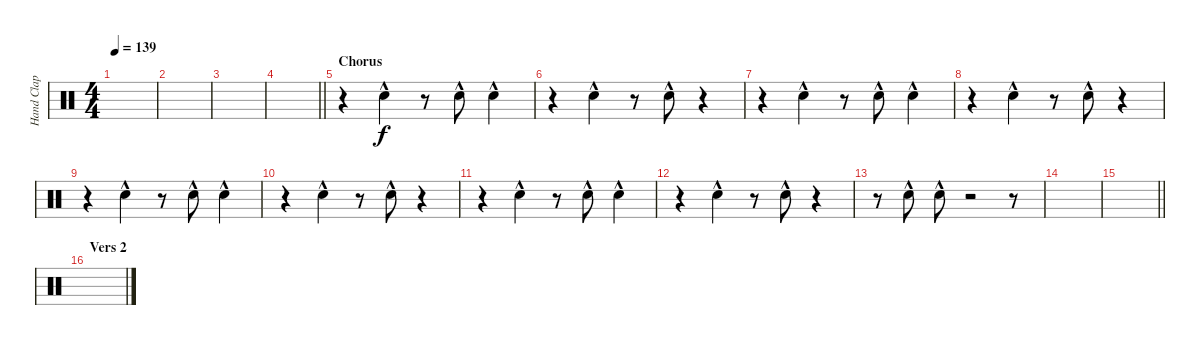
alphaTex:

\track ("Hand Clap Effect" "Hand Clap ") {instrument percussion}
\staff {score}
\articulation defaults
\ts (4 4)
\tempo 139
\clef neutral
\ks c
|
|
|
\barLineRight lightlight
|
\section ("" "Chorus")
r.4 "Hand Clap (hit)"{hac}.4 r.8 "Hand Clap (hit)"{hac}.8 "Hand Clap (hit)"{hac}.4 |
r.4 "Hand Clap (hit)"{hac}.4 r.8 "Hand Clap (hit)"{hac}.8 r.4 |
r.4 "Hand Clap (hit)"{hac}.4 r.8 "Hand Clap (hit)"{hac}.8 "Hand Clap (hit)"{hac}.4 |
r.4 "Hand Clap (hit)"{hac}.4 r.8 "Hand Clap (hit)"{hac}.8 r.4 |
r.4 "Hand Clap (hit)"{hac}.4 r.8 "Hand Clap (hit)"{hac}.8 "Hand Clap (hit)"{hac}.4 |
r.4 "Hand Clap (hit)"{hac}.4 r.8 "Hand Clap (hit)"{hac}.8 r.4 |
r.4 "Hand Clap (hit)"{hac}.4 r.8 "Hand Clap (hit)"{hac}.8 "Hand Clap (hit)"{hac}.4 |
r.4 "Hand Clap (hit)"{hac}.4 r.8 "Hand Clap (hit)"{hac}.8 r.4 |
r.8 "Hand Clap (hit)"{hac}.8 "Hand Clap (hit)"{hac}.8 r.2 r.8 |
|
\barLineRight lightlight
|
\section ("" "Vers 2")
